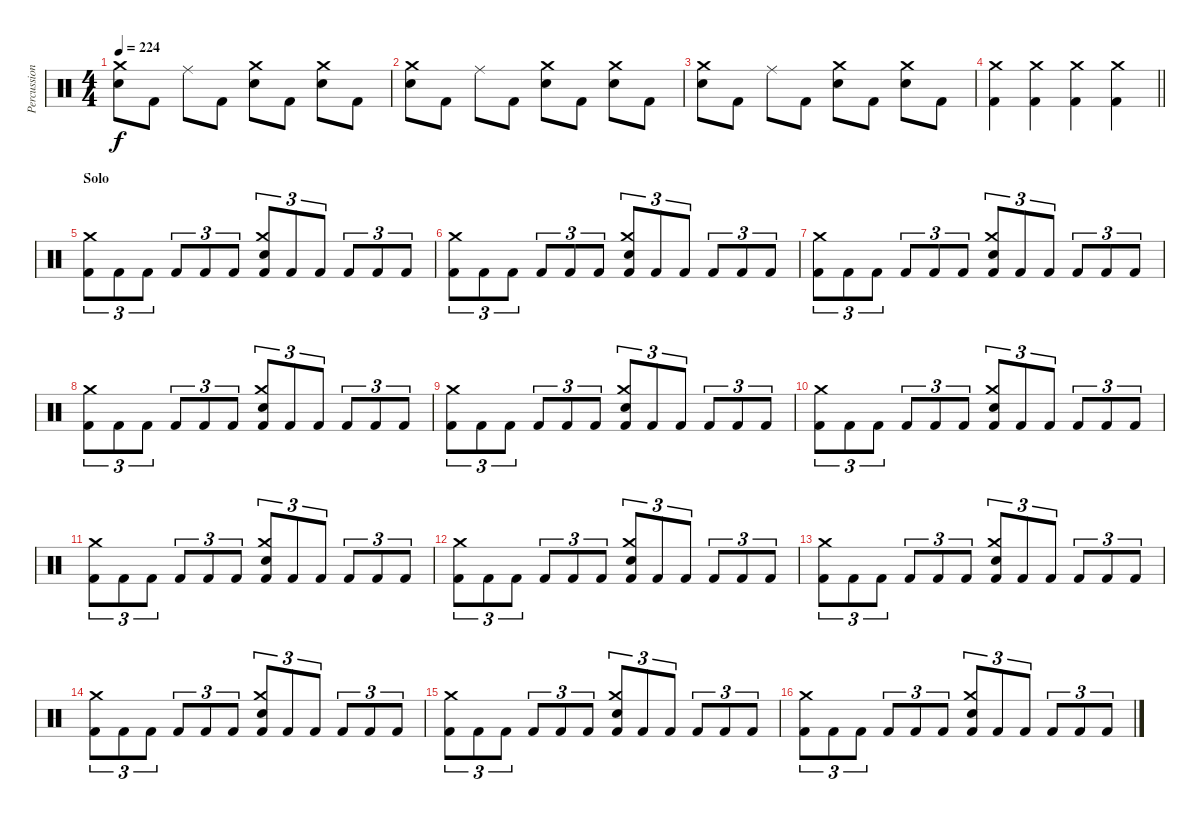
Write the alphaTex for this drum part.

\track ("Percussion" "Percussion") {instrument percussion}
\staff {score}
\articulation defaults
\ts (4 4)
\tempo 224
\clef neutral
\ks c
("Snare (hit) 2" "Crash medium (hit)").8{dy f} "Kick (hit) 2".8 "Ride (middle)".8 "Kick (hit) 2".8 ("Snare (hit) 2" "Crash medium (hit)").8 "Kick (hit) 2".8 ("Snare (hit) 2" "Crash medium (hit)").8 "Kick (hit) 2".8 |
("Snare (hit) 2" "Crash medium (hit)").8 "Kick (hit) 2".8 "Ride (middle)".8 "Kick (hit) 2".8 ("Snare (hit) 2" "Crash medium (hit)").8 "Kick (hit) 2".8 ("Snare (hit) 2" "Crash medium (hit)").8 "Kick (hit) 2".8 |
("Snare (hit) 2" "Crash medium (hit)").8 "Kick (hit) 2".8 "Ride (middle)".8 "Kick (hit) 2".8 ("Snare (hit) 2" "Crash medium (hit)").8 "Kick (hit) 2".8 ("Snare (hit) 2" "Crash medium (hit)").8 "Kick (hit) 2".8 |
\barLineRight lightlight
("Kick (hit) 2" "Crash medium (hit)").4 ("Kick (hit) 2" "Crash medium (hit)").4 ("Kick (hit) 2" "Crash medium (hit)").4 ("Kick (hit) 2" "Crash medium (hit)").4 |
\section ("" "Solo")
("Kick (hit) 2" "Crash medium (hit)").8{tu (3 2)} "Kick (hit) 2".8{tu (3 2)} "Kick (hit) 2".8{tu (3 2)} "Kick (hit) 2".8{tu (3 2)} "Kick (hit) 2".8{tu (3 2)} "Kick (hit) 2".8{tu (3 2)} ("Kick (hit) 2" "Snare (hit) 2" "Crash medium (hit)").8{tu (3 2)} "Kick (hit) 2".8{tu (3 2)} "Kick (hit) 2".8{tu (3 2)} "Kick (hit) 2".8{tu (3 2)} "Kick (hit) 2".8{tu (3 2)} "Kick (hit) 2".8{tu (3 2)} |
("Kick (hit) 2" "Crash medium (hit)").8{tu (3 2)} "Kick (hit) 2".8{tu (3 2)} "Kick (hit) 2".8{tu (3 2)} "Kick (hit) 2".8{tu (3 2)} "Kick (hit) 2".8{tu (3 2)} "Kick (hit) 2".8{tu (3 2)} ("Kick (hit) 2" "Snare (hit) 2" "Crash medium (hit)").8{tu (3 2)} "Kick (hit) 2".8{tu (3 2)} "Kick (hit) 2".8{tu (3 2)} "Kick (hit) 2".8{tu (3 2)} "Kick (hit) 2".8{tu (3 2)} "Kick (hit) 2".8{tu (3 2)} |
("Kick (hit) 2" "Crash medium (hit)").8{tu (3 2)} "Kick (hit) 2".8{tu (3 2)} "Kick (hit) 2".8{tu (3 2)} "Kick (hit) 2".8{tu (3 2)} "Kick (hit) 2".8{tu (3 2)} "Kick (hit) 2".8{tu (3 2)} ("Kick (hit) 2" "Snare (hit) 2" "Crash medium (hit)").8{tu (3 2)} "Kick (hit) 2".8{tu (3 2)} "Kick (hit) 2".8{tu (3 2)} "Kick (hit) 2".8{tu (3 2)} "Kick (hit) 2".8{tu (3 2)} "Kick (hit) 2".8{tu (3 2)} |
("Kick (hit) 2" "Crash medium (hit)").8{tu (3 2)} "Kick (hit) 2".8{tu (3 2)} "Kick (hit) 2".8{tu (3 2)} "Kick (hit) 2".8{tu (3 2)} "Kick (hit) 2".8{tu (3 2)} "Kick (hit) 2".8{tu (3 2)} ("Kick (hit) 2" "Snare (hit) 2" "Crash medium (hit)").8{tu (3 2)} "Kick (hit) 2".8{tu (3 2)} "Kick (hit) 2".8{tu (3 2)} "Kick (hit) 2".8{tu (3 2)} "Kick (hit) 2".8{tu (3 2)} "Kick (hit) 2".8{tu (3 2)} |
("Kick (hit) 2" "Crash medium (hit)").8{tu (3 2)} "Kick (hit) 2".8{tu (3 2)} "Kick (hit) 2".8{tu (3 2)} "Kick (hit) 2".8{tu (3 2)} "Kick (hit) 2".8{tu (3 2)} "Kick (hit) 2".8{tu (3 2)} ("Kick (hit) 2" "Snare (hit) 2" "Crash medium (hit)").8{tu (3 2)} "Kick (hit) 2".8{tu (3 2)} "Kick (hit) 2".8{tu (3 2)} "Kick (hit) 2".8{tu (3 2)} "Kick (hit) 2".8{tu (3 2)} "Kick (hit) 2".8{tu (3 2)} |
("Kick (hit) 2" "Crash medium (hit)").8{tu (3 2)} "Kick (hit) 2".8{tu (3 2)} "Kick (hit) 2".8{tu (3 2)} "Kick (hit) 2".8{tu (3 2)} "Kick (hit) 2".8{tu (3 2)} "Kick (hit) 2".8{tu (3 2)} ("Kick (hit) 2" "Snare (hit) 2" "Crash medium (hit)").8{tu (3 2)} "Kick (hit) 2".8{tu (3 2)} "Kick (hit) 2".8{tu (3 2)} "Kick (hit) 2".8{tu (3 2)} "Kick (hit) 2".8{tu (3 2)} "Kick (hit) 2".8{tu (3 2)} |
("Kick (hit) 2" "Crash medium (hit)").8{tu (3 2)} "Kick (hit) 2".8{tu (3 2)} "Kick (hit) 2".8{tu (3 2)} "Kick (hit) 2".8{tu (3 2)} "Kick (hit) 2".8{tu (3 2)} "Kick (hit) 2".8{tu (3 2)} ("Kick (hit) 2" "Snare (hit) 2" "Crash medium (hit)").8{tu (3 2)} "Kick (hit) 2".8{tu (3 2)} "Kick (hit) 2".8{tu (3 2)} "Kick (hit) 2".8{tu (3 2)} "Kick (hit) 2".8{tu (3 2)} "Kick (hit) 2".8{tu (3 2)} |
("Kick (hit) 2" "Crash medium (hit)").8{tu (3 2)} "Kick (hit) 2".8{tu (3 2)} "Kick (hit) 2".8{tu (3 2)} "Kick (hit) 2".8{tu (3 2)} "Kick (hit) 2".8{tu (3 2)} "Kick (hit) 2".8{tu (3 2)} ("Kick (hit) 2" "Snare (hit) 2" "Crash medium (hit)").8{tu (3 2)} "Kick (hit) 2".8{tu (3 2)} "Kick (hit) 2".8{tu (3 2)} "Kick (hit) 2".8{tu (3 2)} "Kick (hit) 2".8{tu (3 2)} "Kick (hit) 2".8{tu (3 2)} |
("Kick (hit) 2" "Crash medium (hit)").8{tu (3 2)} "Kick (hit) 2".8{tu (3 2)} "Kick (hit) 2".8{tu (3 2)} "Kick (hit) 2".8{tu (3 2)} "Kick (hit) 2".8{tu (3 2)} "Kick (hit) 2".8{tu (3 2)} ("Kick (hit) 2" "Snare (hit) 2" "Crash medium (hit)").8{tu (3 2)} "Kick (hit) 2".8{tu (3 2)} "Kick (hit) 2".8{tu (3 2)} "Kick (hit) 2".8{tu (3 2)} "Kick (hit) 2".8{tu (3 2)} "Kick (hit) 2".8{tu (3 2)} |
("Kick (hit) 2" "Crash medium (hit)").8{tu (3 2)} "Kick (hit) 2".8{tu (3 2)} "Kick (hit) 2".8{tu (3 2)} "Kick (hit) 2".8{tu (3 2)} "Kick (hit) 2".8{tu (3 2)} "Kick (hit) 2".8{tu (3 2)} ("Kick (hit) 2" "Snare (hit) 2" "Crash medium (hit)").8{tu (3 2)} "Kick (hit) 2".8{tu (3 2)} "Kick (hit) 2".8{tu (3 2)} "Kick (hit) 2".8{tu (3 2)} "Kick (hit) 2".8{tu (3 2)} "Kick (hit) 2".8{tu (3 2)} |
("Kick (hit) 2" "Crash medium (hit)").8{tu (3 2)} "Kick (hit) 2".8{tu (3 2)} "Kick (hit) 2".8{tu (3 2)} "Kick (hit) 2".8{tu (3 2)} "Kick (hit) 2".8{tu (3 2)} "Kick (hit) 2".8{tu (3 2)} ("Kick (hit) 2" "Snare (hit) 2" "Crash medium (hit)").8{tu (3 2)} "Kick (hit) 2".8{tu (3 2)} "Kick (hit) 2".8{tu (3 2)} "Kick (hit) 2".8{tu (3 2)} "Kick (hit) 2".8{tu (3 2)} "Kick (hit) 2".8{tu (3 2)} |
("Kick (hit) 2" "Crash medium (hit)").8{tu (3 2)} "Kick (hit) 2".8{tu (3 2)} "Kick (hit) 2".8{tu (3 2)} "Kick (hit) 2".8{tu (3 2)} "Kick (hit) 2".8{tu (3 2)} "Kick (hit) 2".8{tu (3 2)} ("Kick (hit) 2" "Snare (hit) 2" "Crash medium (hit)").8{tu (3 2)} "Kick (hit) 2".8{tu (3 2)} "Kick (hit) 2".8{tu (3 2)} "Kick (hit) 2".8{tu (3 2)} "Kick (hit) 2".8{tu (3 2)} "Kick (hit) 2".8{tu (3 2)}
